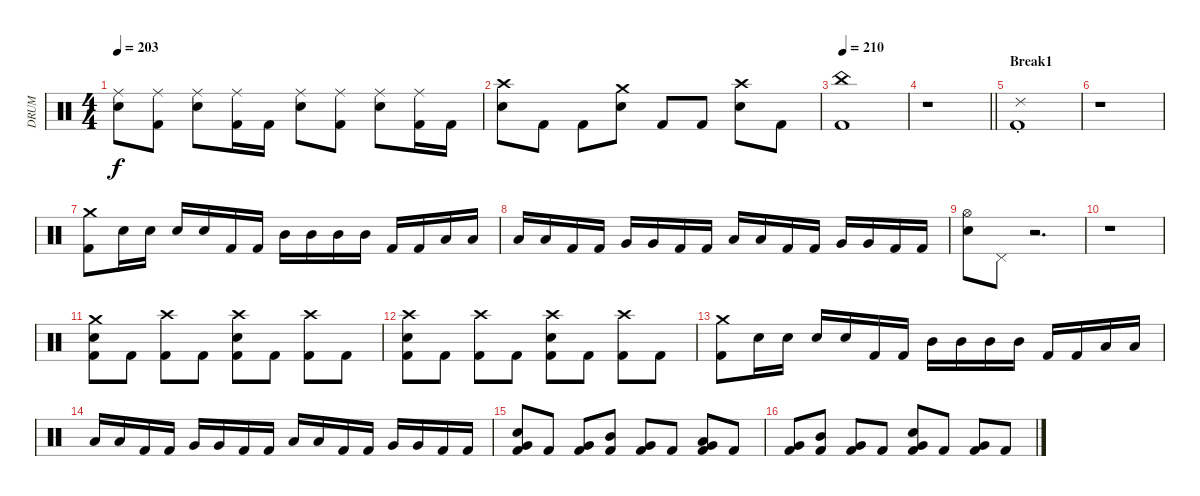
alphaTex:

\track ("DRUM" "DRUM") {instrument percussion bank 102}
\staff {score}
\articulation defaults
\ts (4 4)
\tempo 203
\clef neutral
\ks c
("Ride (middle)" "Electric Snare (hit)").8{dy f} ("Ride (middle)" "Kick (hit) 2").8 ("Ride (middle)" "Electric Snare (hit)").8 ("Ride (middle)" "Kick (hit) 2").16 "Kick (hit) 2".16 ("Ride (middle)" "Electric Snare (hit)").8 ("Ride (middle)" "Kick (hit) 2").8 ("Ride (middle)" "Electric Snare (hit)").8 ("Ride (middle)" "Kick (hit) 2").16 "Kick (hit) 2".16 |
("Crash high (hit)" "Electric Snare (hit)").8 "Kick (hit) 2".8 "Kick (hit) 2".8 ("Crash medium (hit)" "Electric Snare (hit)").8 "Kick (hit) 2".8 "Kick (hit) 2".8 ("Crash high (hit)" "Electric Snare (hit)").8 "Kick (hit) 2".8 |
\tempo 210
("China (hit)" "Kick (hit) 2").1 |
\barLineRight lightlight
r.1 |
\section ("" "Break1")
("Ride (choke) 2" "Kick (hit) 2").1 |
r.1 |
("Crash medium (hit)" "Kick (hit) 2").8 "Electric Snare (hit)".16 "Electric Snare (hit)".16 "Electric Snare (hit)".16 "Electric Snare (hit)".16 "Kick (hit) 2".16 "Kick (hit) 2".16 "Mid Tom (hit)".16 "Mid Tom (hit)".16 "Mid Tom (hit)".16 "Mid Tom (hit)".16 "Kick (hit) 2".16 "Kick (hit) 2".16 "Low Tom (hit)".16 "Low Tom (hit)".16 |
"Low Tom (hit)".16 "Low Tom (hit)".16 "Kick (hit) 2".16 "Kick (hit) 2".16 "Very Low Tom (hit)".16 "Very Low Tom (hit)".16 "Kick (hit) 2".16 "Kick (hit) 2".16 "Low Floor Tom (hit)".16 "Low Floor Tom (hit)".16 "Kick (hit) 2".16 "Kick (hit) 2".16 "Very Low Tom (hit)".16 "Very Low Tom (hit)".16 "Kick (hit) 2".16 "Kick (hit) 2".16 |
("Hi-Hat (open)" "Electric Snare (hit)").8 "Pedal Hi-Hat (hit)".8 r.2{d} |
r.1 |
("Crash medium (hit)" "Electric Snare (hit)" "Kick (hit) 2").8 "Kick (hit) 2".8 ("Crash high (hit)" "Kick (hit) 2").8 "Kick (hit) 2".8 ("Crash high (hit)" "Electric Snare (hit)" "Kick (hit) 2").8 "Kick (hit) 2".8 ("Crash high (hit)" "Kick (hit) 2").8 "Kick (hit) 2".8 |
("Crash high (hit)" "Electric Snare (hit)" "Kick (hit) 2").8 "Kick (hit) 2".8 ("Crash high (hit)" "Kick (hit) 2").8 "Kick (hit) 2".8 ("Crash high (hit)" "Electric Snare (hit)" "Kick (hit) 2").8 "Kick (hit) 2".8 ("Crash high (hit)" "Kick (hit) 2").8 "Kick (hit) 2".8 |
("Crash medium (hit)" "Kick (hit) 2").8 "Electric Snare (hit)".16 "Electric Snare (hit)".16 "Electric Snare (hit)".16 "Electric Snare (hit)".16 "Kick (hit) 2".16 "Kick (hit) 2".16 "Mid Tom (hit)".16 "Mid Tom (hit)".16 "Mid Tom (hit)".16 "Mid Tom (hit)".16 "Kick (hit) 2".16 "Kick (hit) 2".16 "Low Tom (hit)".16 "Low Tom (hit)".16 |
"Low Tom (hit)".16 "Low Tom (hit)".16 "Kick (hit) 2".16 "Kick (hit) 2".16 "Very Low Tom (hit)".16 "Very Low Tom (hit)".16 "Kick (hit) 2".16 "Kick (hit) 2".16 "Low Floor Tom (hit)".16 "Low Floor Tom (hit)".16 "Kick (hit) 2".16 "Kick (hit) 2".16 "Very Low Tom (hit)".16 "Very Low Tom (hit)".16 "Kick (hit) 2".16 "Kick (hit) 2".16 |
("Electric Snare (hit)" "Very Low Tom (hit)" "Kick (hit) 2").8 "Kick (hit) 2".8 ("Very Low Tom (hit)" "Kick (hit) 2").8 ("Mid Tom (hit)" "Kick (hit) 2").8 ("Very Low Tom (hit)" "Kick (hit) 2").8 "Kick (hit) 2".8 ("Low Tom (hit)" "Very Low Tom (hit)" "Kick (hit) 2").8 "Kick (hit) 2".8 |
("Very Low Tom (hit)" "Kick (hit) 2").8 ("Mid Tom (hit)" "Kick (hit) 2").8 ("Very Low Tom (hit)" "Kick (hit) 2").8 "Kick (hit) 2".8 ("Electric Snare (hit)" "Very Low Tom (hit)" "Kick (hit) 2").8 "Kick (hit) 2".8 ("Very Low Tom (hit)" "Kick (hit) 2").8 "Kick (hit) 2".8
